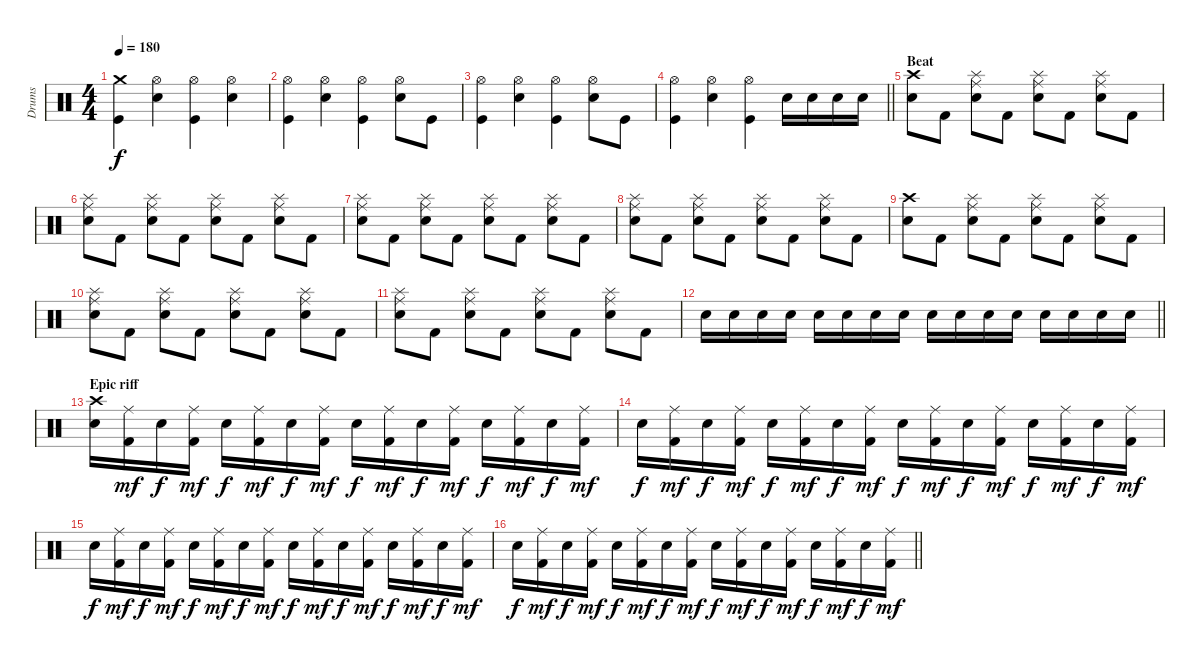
\track ("Drums" "Drums") {instrument percussion}
\staff {score}
\articulation defaults
\ts (4 4)
\tempo 180
\clef neutral
\ks c
("Crash medium (hit)" "Kick (hit)").4{dy f} ("Hi-Hat (open)" "Electric Snare (hit)").4 ("Hi-Hat (open)" "Kick (hit)").4 ("Hi-Hat (open)" "Electric Snare (hit)").4 |
("Hi-Hat (open)" "Kick (hit)").4 ("Hi-Hat (open)" "Electric Snare (hit)").4 ("Hi-Hat (open)" "Kick (hit)").4 ("Hi-Hat (open)" "Electric Snare (hit)").8 "Kick (hit)".8 |
("Hi-Hat (open)" "Kick (hit)").4 ("Hi-Hat (open)" "Electric Snare (hit)").4 ("Hi-Hat (open)" "Kick (hit)").4 ("Hi-Hat (open)" "Electric Snare (hit)").8 "Kick (hit)".8 |
\barLineRight lightlight
("Hi-Hat (open)" "Kick (hit)").4 ("Hi-Hat (open)" "Electric Snare (hit)").4 ("Hi-Hat (open)" "Kick (hit)").4 "Electric Snare (hit)".16 "Electric Snare (hit)".16 "Electric Snare (hit)".16 "Electric Snare (hit)".16 |
\section ("" "Beat")
("Crash high (hit)" "Snare (hit) 2").8 "Kick (hit) 2".8 ("Splash (hit)" "Ride (middle)" "Snare (hit) 2").8 "Kick (hit) 2".8 ("Splash (hit)" "Ride (middle)" "Snare (hit) 2").8 "Kick (hit) 2".8 ("Splash (hit)" "Ride (middle)" "Snare (hit) 2").8 "Kick (hit) 2".8 |
("Splash (hit)" "Ride (middle)" "Snare (hit) 2").8 "Kick (hit) 2".8 ("Splash (hit)" "Ride (middle)" "Snare (hit) 2").8 "Kick (hit) 2".8 ("Splash (hit)" "Ride (middle)" "Snare (hit) 2").8 "Kick (hit) 2".8 ("Splash (hit)" "Ride (middle)" "Snare (hit) 2").8 "Kick (hit) 2".8 |
("Splash (hit)" "Ride (middle)" "Snare (hit) 2").8 "Kick (hit) 2".8 ("Splash (hit)" "Ride (middle)" "Snare (hit) 2").8 "Kick (hit) 2".8 ("Splash (hit)" "Ride (middle)" "Snare (hit) 2").8 "Kick (hit) 2".8 ("Splash (hit)" "Ride (middle)" "Snare (hit) 2").8 "Kick (hit) 2".8 |
("Splash (hit)" "Ride (middle)" "Snare (hit) 2").8 "Kick (hit) 2".8 ("Splash (hit)" "Ride (middle)" "Snare (hit) 2").8 "Kick (hit) 2".8 ("Splash (hit)" "Ride (middle)" "Snare (hit) 2").8 "Kick (hit) 2".8 ("Splash (hit)" "Ride (middle)" "Snare (hit) 2").8 "Kick (hit) 2".8 |
("Crash high (hit)" "Snare (hit) 2").8 "Kick (hit) 2".8 ("Splash (hit)" "Ride (middle)" "Snare (hit) 2").8 "Kick (hit) 2".8 ("Splash (hit)" "Ride (middle)" "Snare (hit) 2").8 "Kick (hit) 2".8 ("Splash (hit)" "Ride (middle)" "Snare (hit) 2").8 "Kick (hit) 2".8 |
("Splash (hit)" "Ride (middle)" "Snare (hit) 2").8 "Kick (hit) 2".8 ("Splash (hit)" "Ride (middle)" "Snare (hit) 2").8 "Kick (hit) 2".8 ("Splash (hit)" "Ride (middle)" "Snare (hit) 2").8 "Kick (hit) 2".8 ("Splash (hit)" "Ride (middle)" "Snare (hit) 2").8 "Kick (hit) 2".8 |
("Splash (hit)" "Ride (middle)" "Snare (hit) 2").8 "Kick (hit) 2".8 ("Splash (hit)" "Ride (middle)" "Snare (hit) 2").8 "Kick (hit) 2".8 ("Splash (hit)" "Ride (middle)" "Snare (hit) 2").8 "Kick (hit) 2".8 ("Splash (hit)" "Ride (middle)" "Snare (hit) 2").8 "Kick (hit) 2".8 |
\barLineRight lightlight "Snare (hit) 2".16 "Snare (hit) 2".16 "Snare (hit) 2".16 "Snare (hit) 2".16 "Snare (hit) 2".16 "Snare (hit) 2".16 "Snare (hit) 2".16 "Snare (hit) 2".16 "Snare (hit) 2".16 "Snare (hit) 2".16 "Snare (hit) 2".16 "Snare (hit) 2".16 "Snare (hit) 2".16 "Snare (hit) 2".16 "Snare (hit) 2".16 "Snare (hit) 2".16
|
\section ("" "Epic riff")
("Crash high (hit)" "Snare (hit) 2").16 ("Ride (middle)" "Kick (hit) 2").16{dy mf} "Snare (hit) 2".16{dy f} ("Ride (middle)" "Kick (hit) 2").16{dy mf} "Snare (hit) 2".16{dy f} ("Ride (middle)" "Kick (hit) 2").16{dy mf} "Snare (hit) 2".16{dy f} ("Ride (middle)" "Kick (hit) 2").16{dy mf} "Snare (hit) 2".16{dy f} ("Ride (middle)" "Kick (hit) 2").16{dy mf} "Snare (hit) 2".16{dy f} ("Ride (middle)" "Kick (hit) 2").16{dy mf} "Snare (hit) 2".16{dy f} ("Ride (middle)" "Kick (hit) 2").16{dy mf} "Snare (hit) 2".16{dy f} ("Ride (middle)" "Kick (hit) 2").16{dy mf} |
"Snare (hit) 2".16{dy f} ("Ride (middle)" "Kick (hit) 2").16{dy mf} "Snare (hit) 2".16{dy f} ("Ride (middle)" "Kick (hit) 2").16{dy mf} "Snare (hit) 2".16{dy f} ("Ride (middle)" "Kick (hit) 2").16{dy mf} "Snare (hit) 2".16{dy f} ("Ride (middle)" "Kick (hit) 2").16{dy mf} "Snare (hit) 2".16{dy f} ("Ride (middle)" "Kick (hit) 2").16{dy mf} "Snare (hit) 2".16{dy f} ("Ride (middle)" "Kick (hit) 2").16{dy mf} "Snare (hit) 2".16{dy f} ("Ride (middle)" "Kick (hit) 2").16{dy mf} "Snare (hit) 2".16{dy f} ("Ride (middle)" "Kick (hit) 2").16{dy mf} |
"Snare (hit) 2".16{dy f} ("Ride (middle)" "Kick (hit) 2").16{dy mf} "Snare (hit) 2".16{dy f} ("Ride (middle)" "Kick (hit) 2").16{dy mf} "Snare (hit) 2".16{dy f} ("Ride (middle)" "Kick (hit) 2").16{dy mf} "Snare (hit) 2".16{dy f} ("Ride (middle)" "Kick (hit) 2").16{dy mf} "Snare (hit) 2".16{dy f} ("Ride (middle)" "Kick (hit) 2").16{dy mf} "Snare (hit) 2".16{dy f} ("Ride (middle)" "Kick (hit) 2").16{dy mf} "Snare (hit) 2".16{dy f} ("Ride (middle)" "Kick (hit) 2").16{dy mf} "Snare (hit) 2".16{dy f} ("Ride (middle)" "Kick (hit) 2").16{dy mf} |
\barLineRight lightlight "Snare (hit) 2".16{dy f}
("Ride (middle)" "Kick (hit) 2").16{dy mf} "Snare (hit) 2".16{dy f} ("Ride (middle)" "Kick (hit) 2").16{dy mf} "Snare (hit) 2".16{dy f} ("Ride (middle)" "Kick (hit) 2").16{dy mf} "Snare (hit) 2".16{dy f} ("Ride (middle)" "Kick (hit) 2").16{dy mf} "Snare (hit) 2".16{dy f} ("Ride (middle)" "Kick (hit) 2").16{dy mf} "Snare (hit) 2".16{dy f} ("Ride (middle)" "Kick (hit) 2").16{dy mf} "Snare (hit) 2".16{dy f} ("Ride (middle)" "Kick (hit) 2").16{dy mf} "Snare (hit) 2".16{dy f} ("Ride (middle)" "Kick (hit) 2").16{dy mf}
